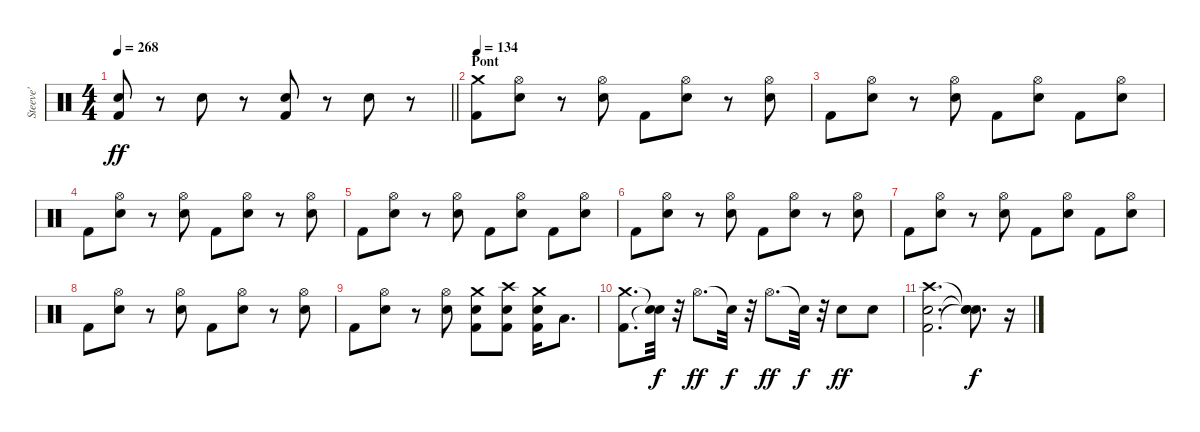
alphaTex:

\track ("Steeve'" "Steeve'") {instrument percussion}
\staff {score}
\articulation defaults
\ts (4 4)
\tempo 268
\clef neutral
\barLineRight lightlight
\ks c
("Kick (hit) 2" "Electric Snare (hit)").8{dy ff volume 12} r.8 "Electric Snare (hit)".8{volume 14} r.8 ("Kick (hit) 2" "Electric Snare (hit)").8{volume 16} r.8 "Electric Snare (hit)".8 r.8 |
\section ("" "Pont")
\tempo 134
("Kick (hit) 2" "Crash medium (hit)").8 ("Electric Snare (hit)" "Hi-Hat (open)").8 r.8 ("Electric Snare (hit)" "Hi-Hat (open)").8 "Kick (hit) 2".8 ("Electric Snare (hit)" "Hi-Hat (open)").8 r.8 ("Electric Snare (hit)" "Hi-Hat (open)").8 |
"Kick (hit) 2".8 ("Electric Snare (hit)" "Hi-Hat (open)").8 r.8 ("Electric Snare (hit)" "Hi-Hat (open)").8 "Kick (hit) 2".8 ("Electric Snare (hit)" "Hi-Hat (open)").8 "Kick (hit) 2".8 ("Electric Snare (hit)" "Hi-Hat (open)").8 |
"Kick (hit) 2".8 ("Electric Snare (hit)" "Hi-Hat (open)").8 r.8 ("Electric Snare (hit)" "Hi-Hat (open)").8 "Kick (hit) 2".8 ("Electric Snare (hit)" "Hi-Hat (open)").8 r.8 ("Electric Snare (hit)" "Hi-Hat (open)").8 |
"Kick (hit) 2".8 ("Electric Snare (hit)" "Hi-Hat (open)").8 r.8 ("Electric Snare (hit)" "Hi-Hat (open)").8 "Kick (hit) 2".8 ("Electric Snare (hit)" "Hi-Hat (open)").8 "Kick (hit) 2".8 ("Electric Snare (hit)" "Hi-Hat (open)").8 |
"Kick (hit) 2".8 ("Electric Snare (hit)" "Hi-Hat (open)").8 r.8 ("Electric Snare (hit)" "Hi-Hat (open)").8 "Kick (hit) 2".8 ("Electric Snare (hit)" "Hi-Hat (open)").8 r.8 ("Electric Snare (hit)" "Hi-Hat (open)").8 |
"Kick (hit) 2".8 ("Electric Snare (hit)" "Hi-Hat (open)").8 r.8 ("Electric Snare (hit)" "Hi-Hat (open)").8 "Kick (hit) 2".8 ("Electric Snare (hit)" "Hi-Hat (open)").8 "Kick (hit) 2".8 ("Electric Snare (hit)" "Hi-Hat (open)").8 |
"Kick (hit) 2".8 ("Electric Snare (hit)" "Hi-Hat (open)").8 r.8 ("Electric Snare (hit)" "Hi-Hat (open)").8 "Kick (hit) 2".8 ("Electric Snare (hit)" "Hi-Hat (open)").8 r.8 ("Electric Snare (hit)" "Hi-Hat (open)").8 |
"Kick (hit) 2".8 ("Electric Snare (hit)" "Hi-Hat (open)").8 r.8 ("Electric Snare (hit)" "Hi-Hat (open)").8 ("Kick (hit) 2" "Electric Snare (hit)" "Crash medium (hit)").8 ("Kick (hit) 2" "Electric Snare (hit)" "Crash high (hit)").8 ("Kick (hit) 2" "Electric Snare (hit)" "Crash medium (hit)").16 "Low Floor Tom (hit)".8{d} |
("Kick (hit) 2" "Crash medium (hit)").8{d} ("Snare (hit)"{t} "Snare (hit)"{t}).32{dy f} r.32 "Hi-Hat (open)".8{d dy ff} "Snare (hit)"{t}.32{dy f} r.32 "Hi-Hat (open)".8{d dy ff} "Snare (hit)"{t}.32{dy f} r.32 "Electric Snare (hit)".8{dy ff} "Electric Snare (hit)".8 |
("Kick (hit) 2" "Electric Snare (hit)" "Crash high (hit)").2{d} ("Snare (hit)"{t} "Snare (hit)"{t} "Snare (hit)"{t}).8{d dy f} r.16
